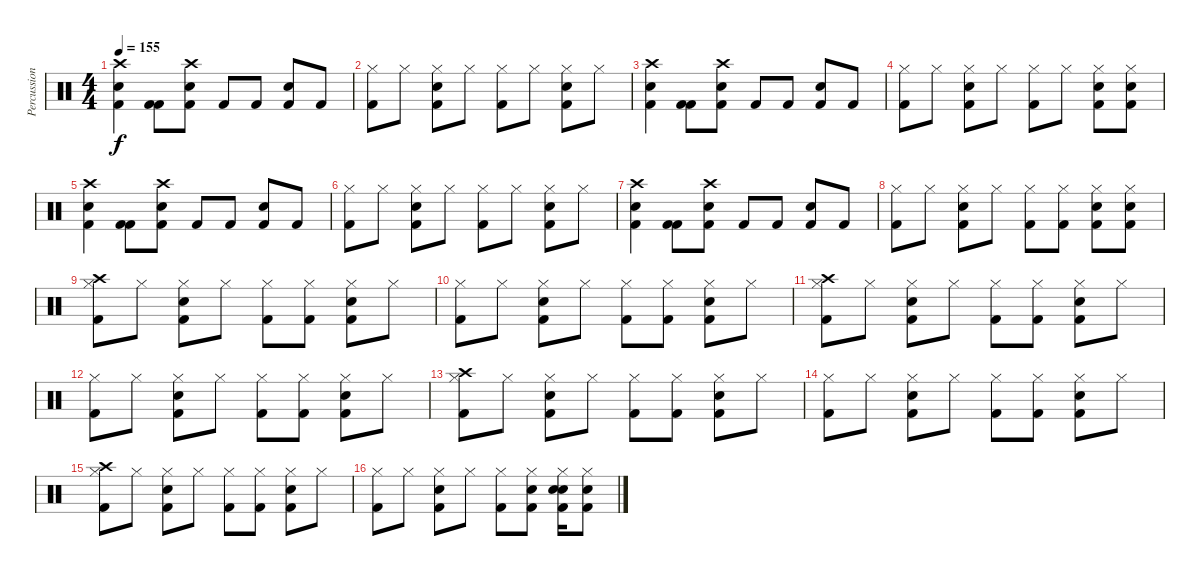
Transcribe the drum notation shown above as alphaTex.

\track ("Percussion" "Percussion") {instrument percussion}
\staff {score}
\articulation defaults
\ts (4 4)
\tempo 155
\clef neutral
\ks c
("Crash high (hit)" "Snare (hit) 2" "Kick (hit) 2").4{dy f} ("Kick (hit) 2" "Kick (hit) 2").8 ("Crash high (hit)" "Snare (hit) 2" "Kick (hit) 2").8 "Kick (hit) 2".8 "Kick (hit) 2".8 ("Snare (hit) 2" "Kick (hit) 2").8 "Kick (hit) 2".8 |
("Kick (hit) 2" "Hi-Hat (closed)").8 "Hi-Hat (closed)".8 ("Snare (hit) 2" "Kick (hit) 2" "Hi-Hat (closed)").8 "Hi-Hat (closed)".8 ("Kick (hit) 2" "Hi-Hat (closed)").8 "Hi-Hat (closed)".8 ("Snare (hit) 2" "Kick (hit) 2" "Hi-Hat (closed)").8 "Hi-Hat (closed)".8 |
("Crash high (hit)" "Snare (hit) 2" "Kick (hit) 2").4 ("Kick (hit) 2" "Kick (hit) 2").8 ("Crash high (hit)" "Snare (hit) 2" "Kick (hit) 2").8 "Kick (hit) 2".8 "Kick (hit) 2".8 ("Snare (hit) 2" "Kick (hit) 2").8 "Kick (hit) 2".8 |
("Kick (hit) 2" "Hi-Hat (closed)").8 "Hi-Hat (closed)".8 ("Snare (hit) 2" "Kick (hit) 2" "Hi-Hat (closed)").8 "Hi-Hat (closed)".8 ("Kick (hit) 2" "Hi-Hat (closed)").8 "Hi-Hat (closed)".8 ("Snare (hit) 2" "Kick (hit) 2" "Hi-Hat (closed)").8 ("Snare (hit) 2" "Kick (hit) 2" "Hi-Hat (closed)").8 |
("Crash high (hit)" "Snare (hit) 2" "Kick (hit) 2").4 ("Kick (hit) 2" "Kick (hit) 2").8 ("Crash high (hit)" "Snare (hit) 2" "Kick (hit) 2").8 "Kick (hit) 2".8 "Kick (hit) 2".8 ("Snare (hit) 2" "Kick (hit) 2").8 "Kick (hit) 2".8 |
("Kick (hit) 2" "Hi-Hat (closed)").8 "Hi-Hat (closed)".8 ("Snare (hit) 2" "Kick (hit) 2" "Hi-Hat (closed)").8 "Hi-Hat (closed)".8 ("Kick (hit) 2" "Hi-Hat (closed)").8 "Hi-Hat (closed)".8 ("Snare (hit) 2" "Kick (hit) 2" "Hi-Hat (closed)").8 "Hi-Hat (closed)".8 |
("Crash high (hit)" "Snare (hit) 2" "Kick (hit) 2").4 ("Kick (hit) 2" "Kick (hit) 2").8 ("Crash high (hit)" "Snare (hit) 2" "Kick (hit) 2").8 "Kick (hit) 2".8 "Kick (hit) 2".8 ("Snare (hit) 2" "Kick (hit) 2").8 "Kick (hit) 2".8 |
("Kick (hit) 2" "Hi-Hat (closed)").8 "Hi-Hat (closed)".8 ("Snare (hit) 2" "Kick (hit) 2" "Hi-Hat (closed)").8 "Hi-Hat (closed)".8 ("Kick (hit) 2" "Hi-Hat (closed)").8 ("Kick (hit) 2" "Hi-Hat (closed)").8 ("Snare (hit) 2" "Kick (hit) 2" "Hi-Hat (closed)").8 ("Snare (hit) 2" "Kick (hit) 2" "Hi-Hat (closed)").8 |
("Crash high (hit)" "Kick (hit) 2" "Hi-Hat (closed)").8 "Hi-Hat (closed)".8 ("Kick (hit) 2" "Snare (hit) 2" "Hi-Hat (closed)").8 "Hi-Hat (closed)".8 ("Kick (hit) 2" "Hi-Hat (closed)").8 ("Kick (hit) 2" "Hi-Hat (closed)").8 ("Kick (hit) 2" "Snare (hit) 2" "Hi-Hat (closed)").8 "Hi-Hat (closed)".8 |
("Kick (hit) 2" "Hi-Hat (closed)").8 "Hi-Hat (closed)".8 ("Kick (hit) 2" "Snare (hit) 2" "Hi-Hat (closed)").8 "Hi-Hat (closed)".8 ("Kick (hit) 2" "Hi-Hat (closed)").8 ("Kick (hit) 2" "Hi-Hat (closed)").8 ("Kick (hit) 2" "Snare (hit) 2" "Hi-Hat (closed)").8 "Hi-Hat (closed)".8 |
("Crash high (hit)" "Kick (hit) 2" "Hi-Hat (closed)").8 "Hi-Hat (closed)".8 ("Kick (hit) 2" "Snare (hit) 2" "Hi-Hat (closed)").8 "Hi-Hat (closed)".8 ("Kick (hit) 2" "Hi-Hat (closed)").8 ("Kick (hit) 2" "Hi-Hat (closed)").8 ("Kick (hit) 2" "Snare (hit) 2" "Hi-Hat (closed)").8 "Hi-Hat (closed)".8 |
("Kick (hit) 2" "Hi-Hat (closed)").8 "Hi-Hat (closed)".8 ("Kick (hit) 2" "Snare (hit) 2" "Hi-Hat (closed)").8 "Hi-Hat (closed)".8 ("Kick (hit) 2" "Hi-Hat (closed)").8 ("Kick (hit) 2" "Hi-Hat (closed)").8 ("Kick (hit) 2" "Snare (hit) 2" "Hi-Hat (closed)").8 "Hi-Hat (closed)".8 |
("Crash high (hit)" "Kick (hit) 2" "Hi-Hat (closed)").8 "Hi-Hat (closed)".8 ("Kick (hit) 2" "Snare (hit) 2" "Hi-Hat (closed)").8 "Hi-Hat (closed)".8 ("Kick (hit) 2" "Hi-Hat (closed)").8 ("Kick (hit) 2" "Hi-Hat (closed)").8 ("Kick (hit) 2" "Snare (hit) 2" "Hi-Hat (closed)").8 "Hi-Hat (closed)".8 |
("Kick (hit) 2" "Hi-Hat (closed)").8 "Hi-Hat (closed)".8 ("Kick (hit) 2" "Snare (hit) 2" "Hi-Hat (closed)").8 "Hi-Hat (closed)".8 ("Kick (hit) 2" "Hi-Hat (closed)").8 ("Kick (hit) 2" "Hi-Hat (closed)").8 ("Kick (hit) 2" "Snare (hit) 2" "Hi-Hat (closed)").8 "Hi-Hat (closed)".8 |
("Crash high (hit)" "Kick (hit) 2" "Hi-Hat (closed)").8 "Hi-Hat (closed)".8 ("Kick (hit) 2" "Snare (hit) 2" "Hi-Hat (closed)").8 "Hi-Hat (closed)".8 ("Kick (hit) 2" "Hi-Hat (closed)").8 ("Kick (hit) 2" "Hi-Hat (closed)").8 ("Kick (hit) 2" "Snare (hit) 2" "Hi-Hat (closed)").8 "Hi-Hat (closed)".8 |
("Kick (hit) 2" "Hi-Hat (closed)").8 "Hi-Hat (closed)".8 ("Kick (hit) 2" "Snare (hit) 2" "Hi-Hat (closed)").8 "Hi-Hat (closed)".8 ("Kick (hit) 2" "Hi-Hat (closed)").8 ("Kick (hit) 2" "Snare (hit) 2" "Hi-Hat (closed)").8 ("Kick (hit) 2" "Snare (hit) 2" "Snare (hit) 2" "Hi-Hat (closed)").16 ("Kick (hit) 2" "Snare (hit) 2" "Hi-Hat (closed)").8
